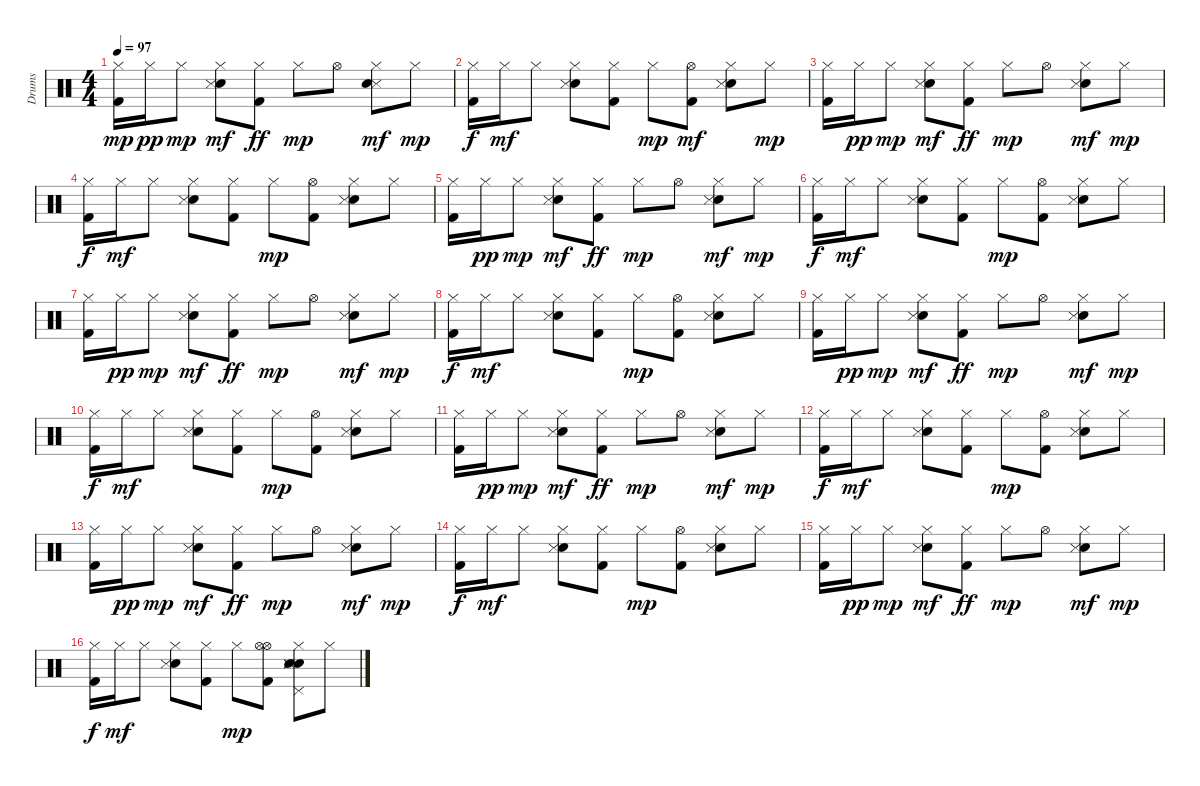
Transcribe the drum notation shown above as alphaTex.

\track ("Drums" "Drums") {instrument percussion}
\staff {score}
\articulation defaults
\ts (4 4)
\tempo 97
\clef neutral
\ks c
("Kick (hit) 2" "Hi-Hat (closed)").16{dy mp} "Hi-Hat (closed)".16{dy pp} "Hi-Hat (closed)".8{dy mp} ("Hand Clap (hit)" "Hi-Hat (closed)" "Snare (side stick) 3").8{dy mf} ("Hi-Hat (closed)" "Kick (hit) 2").8{dy ff} "Hi-Hat (closed)".8{dy mp} "Hi-Hat (open)".8 ("Hi-Hat (closed)" "Snare (side stick) 3" "Hand Clap (hit)").8{dy mf} "Hi-Hat (closed)".8{dy mp} |
("Kick (hit) 2" "Hi-Hat (closed)").16{dy f} "Hi-Hat (closed)".16{dy mf} "Hi-Hat (closed)".8 ("Hand Clap (hit)" "Snare (side stick) 3" "Hi-Hat (closed)").8 ("Hi-Hat (closed)" "Kick (hit) 2").8 "Hi-Hat (closed)".8{dy mp} ("Hi-Hat (open)" "Kick (hit) 2").8{dy mf} ("Hand Clap (hit)" "Snare (side stick) 3" "Hi-Hat (closed)").8 "Hi-Hat (closed)".8{dy mp} |
("Hi-Hat (closed)" "Kick (hit) 2").16 "Hi-Hat (closed)".16{dy pp} "Hi-Hat (closed)".8{dy mp} ("Hi-Hat (closed)" "Hand Clap (hit)" "Snare (side stick) 3").8{dy mf} ("Hi-Hat (closed)" "Kick (hit) 2").8{dy ff} "Hi-Hat (closed)".8{dy mp} "Hi-Hat (open)".8 ("Hi-Hat (closed)" "Hand Clap (hit)" "Snare (side stick) 3").8{dy mf} "Hi-Hat (closed)".8{dy mp} |
("Hi-Hat (closed)" "Kick (hit) 2").16{dy f} "Hi-Hat (closed)".16{dy mf} "Hi-Hat (closed)".8 ("Hi-Hat (closed)" "Hand Clap (hit)" "Snare (side stick) 3").8 ("Hi-Hat (closed)" "Kick (hit) 2").8 "Hi-Hat (closed)".8{dy mp} ("Kick (hit) 2" "Hi-Hat (open)").8 ("Hi-Hat (closed)" "Hand Clap (hit)" "Snare (side stick) 3").8 "Hi-Hat (closed)".8 |
("Hi-Hat (closed)" "Kick (hit) 2").16 "Hi-Hat (closed)".16{dy pp} "Hi-Hat (closed)".8{dy mp} ("Hi-Hat (closed)" "Hand Clap (hit)" "Snare (side stick) 3").8{dy mf} ("Hi-Hat (closed)" "Kick (hit) 2").8{dy ff} "Hi-Hat (closed)".8{dy mp} "Hi-Hat (open)".8 ("Hi-Hat (closed)" "Hand Clap (hit)" "Snare (side stick) 3").8{dy mf} "Hi-Hat (closed)".8{dy mp} |
("Hi-Hat (closed)" "Kick (hit) 2").16{dy f} "Hi-Hat (closed)".16{dy mf} "Hi-Hat (closed)".8 ("Hi-Hat (closed)" "Hand Clap (hit)" "Snare (side stick) 3").8 ("Hi-Hat (closed)" "Kick (hit) 2").8 "Hi-Hat (closed)".8{dy mp} ("Kick (hit) 2" "Hi-Hat (open)").8 ("Hi-Hat (closed)" "Hand Clap (hit)" "Snare (side stick) 3").8 "Hi-Hat (closed)".8 |
("Hi-Hat (closed)" "Kick (hit) 2").16 "Hi-Hat (closed)".16{dy pp} "Hi-Hat (closed)".8{dy mp} ("Hi-Hat (closed)" "Hand Clap (hit)" "Snare (side stick) 3").8{dy mf} ("Hi-Hat (closed)" "Kick (hit) 2").8{dy ff} "Hi-Hat (closed)".8{dy mp} "Hi-Hat (open)".8 ("Hi-Hat (closed)" "Hand Clap (hit)" "Snare (side stick) 3").8{dy mf} "Hi-Hat (closed)".8{dy mp} |
("Hi-Hat (closed)" "Kick (hit) 2").16{dy f} "Hi-Hat (closed)".16{dy mf} "Hi-Hat (closed)".8 ("Hi-Hat (closed)" "Hand Clap (hit)" "Snare (side stick) 3").8 ("Hi-Hat (closed)" "Kick (hit) 2").8 "Hi-Hat (closed)".8{dy mp} ("Kick (hit) 2" "Hi-Hat (open)").8 ("Hi-Hat (closed)" "Hand Clap (hit)" "Snare (side stick) 3").8 "Hi-Hat (closed)".8 |
("Hi-Hat (closed)" "Kick (hit) 2").16 "Hi-Hat (closed)".16{dy pp} "Hi-Hat (closed)".8{dy mp} ("Hi-Hat (closed)" "Hand Clap (hit)" "Snare (side stick) 3").8{dy mf} ("Hi-Hat (closed)" "Kick (hit) 2").8{dy ff} "Hi-Hat (closed)".8{dy mp} "Hi-Hat (open)".8 ("Hi-Hat (closed)" "Hand Clap (hit)" "Snare (side stick) 3").8{dy mf} "Hi-Hat (closed)".8{dy mp} |
("Hi-Hat (closed)" "Kick (hit) 2").16{dy f} "Hi-Hat (closed)".16{dy mf} "Hi-Hat (closed)".8 ("Hi-Hat (closed)" "Hand Clap (hit)" "Snare (side stick) 3").8 ("Hi-Hat (closed)" "Kick (hit) 2").8 "Hi-Hat (closed)".8{dy mp} ("Kick (hit) 2" "Hi-Hat (open)").8 ("Hi-Hat (closed)" "Hand Clap (hit)" "Snare (side stick) 3").8 "Hi-Hat (closed)".8 |
("Hi-Hat (closed)" "Kick (hit) 2").16 "Hi-Hat (closed)".16{dy pp} "Hi-Hat (closed)".8{dy mp} ("Hi-Hat (closed)" "Hand Clap (hit)" "Snare (side stick) 3").8{dy mf} ("Hi-Hat (closed)" "Kick (hit) 2").8{dy ff} "Hi-Hat (closed)".8{dy mp} "Hi-Hat (open)".8 ("Hi-Hat (closed)" "Hand Clap (hit)" "Snare (side stick) 3").8{dy mf} "Hi-Hat (closed)".8{dy mp} |
("Hi-Hat (closed)" "Kick (hit) 2").16{dy f} "Hi-Hat (closed)".16{dy mf} "Hi-Hat (closed)".8 ("Hi-Hat (closed)" "Hand Clap (hit)" "Snare (side stick) 3").8 ("Hi-Hat (closed)" "Kick (hit) 2").8 "Hi-Hat (closed)".8{dy mp} ("Kick (hit) 2" "Hi-Hat (open)").8 ("Hi-Hat (closed)" "Hand Clap (hit)" "Snare (side stick) 3").8 "Hi-Hat (closed)".8 |
("Hi-Hat (closed)" "Kick (hit) 2").16 "Hi-Hat (closed)".16{dy pp} "Hi-Hat (closed)".8{dy mp} ("Hi-Hat (closed)" "Hand Clap (hit)" "Snare (side stick) 3").8{dy mf} ("Hi-Hat (closed)" "Kick (hit) 2").8{dy ff} "Hi-Hat (closed)".8{dy mp} "Hi-Hat (open)".8 ("Hi-Hat (closed)" "Hand Clap (hit)" "Snare (side stick) 3").8{dy mf} "Hi-Hat (closed)".8{dy mp} |
("Hi-Hat (closed)" "Kick (hit) 2").16{dy f} "Hi-Hat (closed)".16{dy mf} "Hi-Hat (closed)".8 ("Hi-Hat (closed)" "Hand Clap (hit)" "Snare (side stick) 3").8 ("Hi-Hat (closed)" "Kick (hit) 2").8 "Hi-Hat (closed)".8{dy mp} ("Kick (hit) 2" "Hi-Hat (open)").8 ("Hi-Hat (closed)" "Hand Clap (hit)" "Snare (side stick) 3").8 "Hi-Hat (closed)".8 |
("Hi-Hat (closed)" "Kick (hit) 2").16 "Hi-Hat (closed)".16{dy pp} "Hi-Hat (closed)".8{dy mp} ("Hi-Hat (closed)" "Hand Clap (hit)" "Snare (side stick) 3").8{dy mf} ("Hi-Hat (closed)" "Kick (hit) 2").8{dy ff} "Hi-Hat (closed)".8{dy mp} "Hi-Hat (open)".8 ("Hi-Hat (closed)" "Hand Clap (hit)" "Snare (side stick) 3").8{dy mf} "Hi-Hat (closed)".8{dy mp} |
("Hi-Hat (closed)" "Kick (hit) 2").16{dy f} "Hi-Hat (closed)".16{dy mf} "Hi-Hat (closed)".8 ("Hi-Hat (closed)" "Hand Clap (hit)" "Snare (side stick) 3").8 ("Hi-Hat (closed)" "Kick (hit) 2").8 "Hi-Hat (closed)".8{dy mp} ("Kick (hit) 2" "Hi-Hat (open)" "Hi-Hat (open)").8 ("Hi-Hat (closed)" "Hand Clap (hit)" "Snare (side stick) 3" "Hand Clap (hit)" "Pedal Hi-Hat (hit)" "Snare (side stick) 3").8 "Hi-Hat (closed)".8
